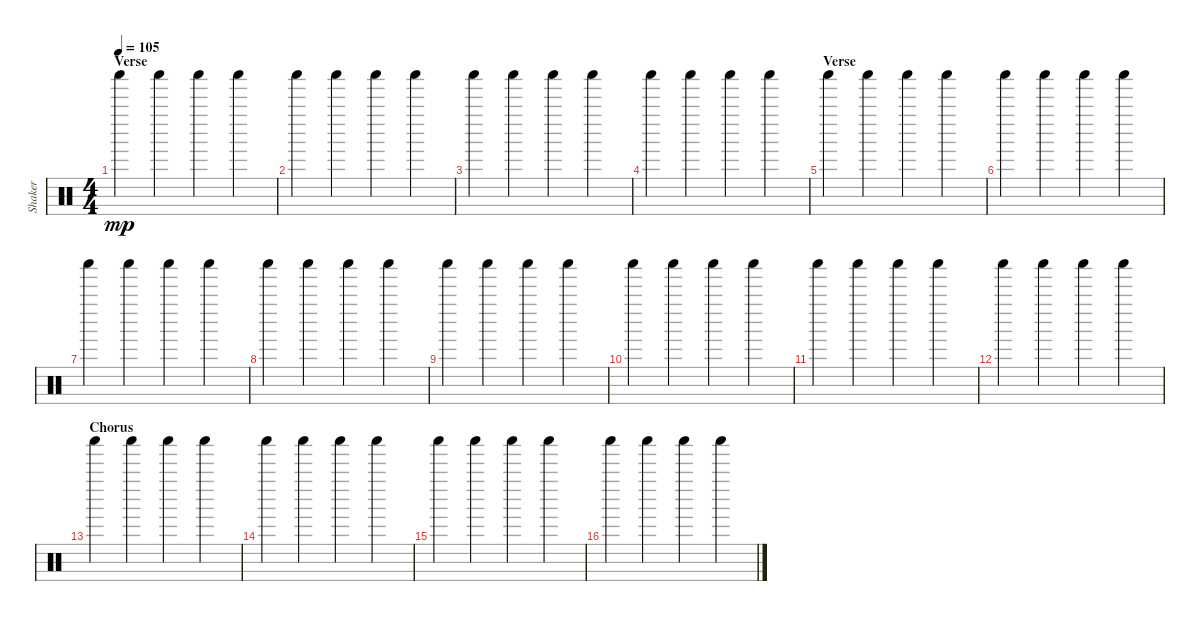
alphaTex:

\track ("Shaker" "Shaker") {instrument percussion}
\staff {score}
\articulation defaults
\ts (4 4)
\section ("" "Verse")
\tempo 105
\clef neutral
\ks c "Shaker (hit)".4{dy mp} "Shaker (hit)".4 "Shaker (hit)".4 "Shaker (hit)".4
|
"Shaker (hit)".4 "Shaker (hit)".4 "Shaker (hit)".4 "Shaker (hit)".4 |
"Shaker (hit)".4 "Shaker (hit)".4 "Shaker (hit)".4 "Shaker (hit)".4 |
"Shaker (hit)".4 "Shaker (hit)".4 "Shaker (hit)".4 "Shaker (hit)".4 |
\section ("" "Verse")
"Shaker (hit)".4 "Shaker (hit)".4 "Shaker (hit)".4 "Shaker (hit)".4 |
"Shaker (hit)".4 "Shaker (hit)".4 "Shaker (hit)".4 "Shaker (hit)".4 |
"Shaker (hit)".4 "Shaker (hit)".4 "Shaker (hit)".4 "Shaker (hit)".4 |
"Shaker (hit)".4 "Shaker (hit)".4 "Shaker (hit)".4 "Shaker (hit)".4 |
"Shaker (hit)".4 "Shaker (hit)".4 "Shaker (hit)".4 "Shaker (hit)".4 |
"Shaker (hit)".4 "Shaker (hit)".4 "Shaker (hit)".4 "Shaker (hit)".4 |
"Shaker (hit)".4 "Shaker (hit)".4 "Shaker (hit)".4 "Shaker (hit)".4 |
"Shaker (hit)".4 "Shaker (hit)".4 "Shaker (hit)".4 "Shaker (hit)".4 |
\section ("" "Chorus")
"Shaker (hit)".4 "Shaker (hit)".4 "Shaker (hit)".4 "Shaker (hit)".4 |
"Shaker (hit)".4 "Shaker (hit)".4 "Shaker (hit)".4 "Shaker (hit)".4 |
"Shaker (hit)".4 "Shaker (hit)".4 "Shaker (hit)".4 "Shaker (hit)".4 |
"Shaker (hit)".4 "Shaker (hit)".4 "Shaker (hit)".4 "Shaker (hit)".4
